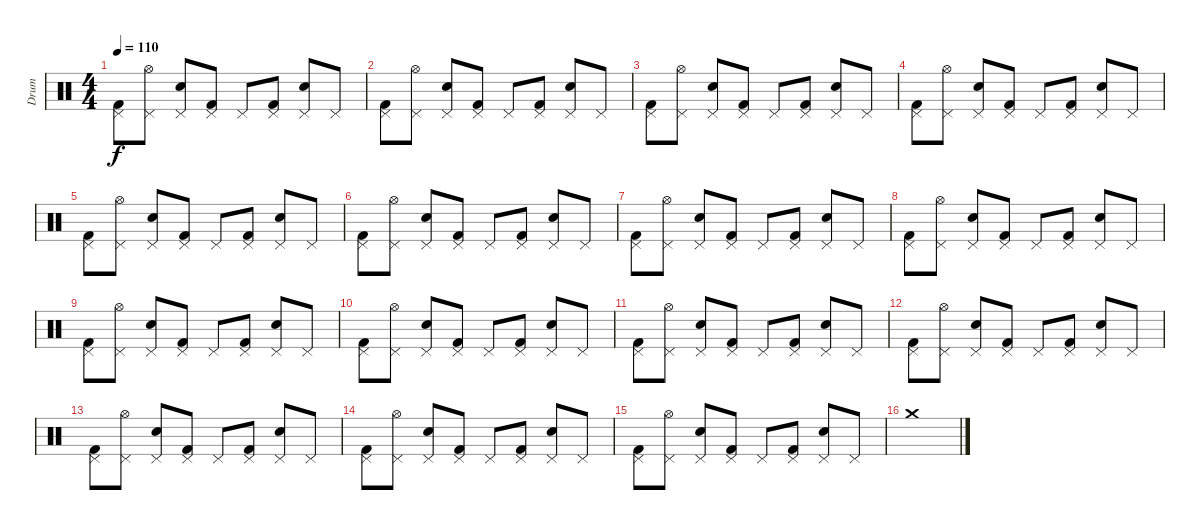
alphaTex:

\track ("Drum " "Drum ") {instrument percussion}
\staff {score}
\articulation defaults
\ts (4 4)
\tempo 110
\clef neutral
\ks c
("Pedal Hi-Hat (hit)" "Kick (hit) 2").8{dy f} ("Pedal Hi-Hat (hit)" "Hi-Hat (open)").8 ("Pedal Hi-Hat (hit)" "Snare (hit) 2").8 ("Pedal Hi-Hat (hit)" "Kick (hit) 2").8 "Pedal Hi-Hat (hit)".8 ("Pedal Hi-Hat (hit)" "Kick (hit) 2").8 ("Pedal Hi-Hat (hit)" "Snare (hit) 2").8 "Pedal Hi-Hat (hit)".8 |
("Pedal Hi-Hat (hit)" "Kick (hit) 2").8 ("Pedal Hi-Hat (hit)" "Hi-Hat (open)").8 ("Pedal Hi-Hat (hit)" "Snare (hit) 2").8 ("Pedal Hi-Hat (hit)" "Kick (hit) 2").8 "Pedal Hi-Hat (hit)".8 ("Pedal Hi-Hat (hit)" "Kick (hit) 2").8 ("Pedal Hi-Hat (hit)" "Snare (hit) 2").8 "Pedal Hi-Hat (hit)".8 |
("Pedal Hi-Hat (hit)" "Kick (hit) 2").8 ("Pedal Hi-Hat (hit)" "Hi-Hat (open)").8 ("Pedal Hi-Hat (hit)" "Snare (hit) 2").8 ("Pedal Hi-Hat (hit)" "Kick (hit) 2").8 "Pedal Hi-Hat (hit)".8 ("Pedal Hi-Hat (hit)" "Kick (hit) 2").8 ("Pedal Hi-Hat (hit)" "Snare (hit) 2").8 "Pedal Hi-Hat (hit)".8 |
("Pedal Hi-Hat (hit)" "Kick (hit) 2").8 ("Pedal Hi-Hat (hit)" "Hi-Hat (open)").8 ("Pedal Hi-Hat (hit)" "Snare (hit) 2").8 ("Pedal Hi-Hat (hit)" "Kick (hit) 2").8 "Pedal Hi-Hat (hit)".8 ("Pedal Hi-Hat (hit)" "Kick (hit) 2").8 ("Pedal Hi-Hat (hit)" "Snare (hit) 2").8 "Pedal Hi-Hat (hit)".8 |
("Pedal Hi-Hat (hit)" "Kick (hit) 2").8 ("Pedal Hi-Hat (hit)" "Hi-Hat (open)").8 ("Pedal Hi-Hat (hit)" "Snare (hit) 2").8 ("Pedal Hi-Hat (hit)" "Kick (hit) 2").8 "Pedal Hi-Hat (hit)".8 ("Pedal Hi-Hat (hit)" "Kick (hit) 2").8 ("Pedal Hi-Hat (hit)" "Snare (hit) 2").8 "Pedal Hi-Hat (hit)".8 |
("Pedal Hi-Hat (hit)" "Kick (hit) 2").8 ("Pedal Hi-Hat (hit)" "Hi-Hat (open)").8 ("Pedal Hi-Hat (hit)" "Snare (hit) 2").8 ("Pedal Hi-Hat (hit)" "Kick (hit) 2").8 "Pedal Hi-Hat (hit)".8 ("Pedal Hi-Hat (hit)" "Kick (hit) 2").8 ("Pedal Hi-Hat (hit)" "Snare (hit) 2").8 "Pedal Hi-Hat (hit)".8 |
("Pedal Hi-Hat (hit)" "Kick (hit) 2").8 ("Pedal Hi-Hat (hit)" "Hi-Hat (open)").8 ("Pedal Hi-Hat (hit)" "Snare (hit) 2").8 ("Pedal Hi-Hat (hit)" "Kick (hit) 2").8 "Pedal Hi-Hat (hit)".8 ("Pedal Hi-Hat (hit)" "Kick (hit) 2").8 ("Pedal Hi-Hat (hit)" "Snare (hit) 2").8 "Pedal Hi-Hat (hit)".8 |
("Pedal Hi-Hat (hit)" "Kick (hit) 2").8 ("Pedal Hi-Hat (hit)" "Hi-Hat (open)").8 ("Pedal Hi-Hat (hit)" "Snare (hit) 2").8 ("Pedal Hi-Hat (hit)" "Kick (hit) 2").8 "Pedal Hi-Hat (hit)".8 ("Pedal Hi-Hat (hit)" "Kick (hit) 2").8 ("Pedal Hi-Hat (hit)" "Snare (hit) 2").8 "Pedal Hi-Hat (hit)".8 |
("Pedal Hi-Hat (hit)" "Kick (hit) 2").8 ("Pedal Hi-Hat (hit)" "Hi-Hat (open)").8 ("Pedal Hi-Hat (hit)" "Snare (hit) 2").8 ("Pedal Hi-Hat (hit)" "Kick (hit) 2").8 "Pedal Hi-Hat (hit)".8 ("Pedal Hi-Hat (hit)" "Kick (hit) 2").8 ("Pedal Hi-Hat (hit)" "Snare (hit) 2").8 "Pedal Hi-Hat (hit)".8 |
("Pedal Hi-Hat (hit)" "Kick (hit) 2").8 ("Pedal Hi-Hat (hit)" "Hi-Hat (open)").8 ("Pedal Hi-Hat (hit)" "Snare (hit) 2").8 ("Pedal Hi-Hat (hit)" "Kick (hit) 2").8 "Pedal Hi-Hat (hit)".8 ("Pedal Hi-Hat (hit)" "Kick (hit) 2").8 ("Pedal Hi-Hat (hit)" "Snare (hit) 2").8 "Pedal Hi-Hat (hit)".8 |
("Pedal Hi-Hat (hit)" "Kick (hit) 2").8 ("Pedal Hi-Hat (hit)" "Hi-Hat (open)").8 ("Pedal Hi-Hat (hit)" "Snare (hit) 2").8 ("Pedal Hi-Hat (hit)" "Kick (hit) 2").8 "Pedal Hi-Hat (hit)".8 ("Pedal Hi-Hat (hit)" "Kick (hit) 2").8 ("Pedal Hi-Hat (hit)" "Snare (hit) 2").8 "Pedal Hi-Hat (hit)".8 |
("Pedal Hi-Hat (hit)" "Kick (hit) 2").8 ("Pedal Hi-Hat (hit)" "Hi-Hat (open)").8 ("Pedal Hi-Hat (hit)" "Snare (hit) 2").8 ("Pedal Hi-Hat (hit)" "Kick (hit) 2").8 "Pedal Hi-Hat (hit)".8 ("Pedal Hi-Hat (hit)" "Kick (hit) 2").8 ("Pedal Hi-Hat (hit)" "Snare (hit) 2").8 "Pedal Hi-Hat (hit)".8 |
("Pedal Hi-Hat (hit)" "Kick (hit) 2").8 ("Pedal Hi-Hat (hit)" "Hi-Hat (open)").8 ("Pedal Hi-Hat (hit)" "Snare (hit) 2").8 ("Pedal Hi-Hat (hit)" "Kick (hit) 2").8 "Pedal Hi-Hat (hit)".8 ("Pedal Hi-Hat (hit)" "Kick (hit) 2").8 ("Pedal Hi-Hat (hit)" "Snare (hit) 2").8 "Pedal Hi-Hat (hit)".8 |
("Pedal Hi-Hat (hit)" "Kick (hit) 2").8 ("Pedal Hi-Hat (hit)" "Hi-Hat (open)").8 ("Pedal Hi-Hat (hit)" "Snare (hit) 2").8 ("Pedal Hi-Hat (hit)" "Kick (hit) 2").8 "Pedal Hi-Hat (hit)".8 ("Pedal Hi-Hat (hit)" "Kick (hit) 2").8 ("Pedal Hi-Hat (hit)" "Snare (hit) 2").8 "Pedal Hi-Hat (hit)".8 |
("Pedal Hi-Hat (hit)" "Kick (hit) 2").8 ("Pedal Hi-Hat (hit)" "Hi-Hat (open)").8 ("Pedal Hi-Hat (hit)" "Snare (hit) 2").8 ("Pedal Hi-Hat (hit)" "Kick (hit) 2").8 "Pedal Hi-Hat (hit)".8 ("Pedal Hi-Hat (hit)" "Kick (hit) 2").8 ("Pedal Hi-Hat (hit)" "Snare (hit) 2").8 "Pedal Hi-Hat (hit)".8 |
"Crash medium (hit)".1
